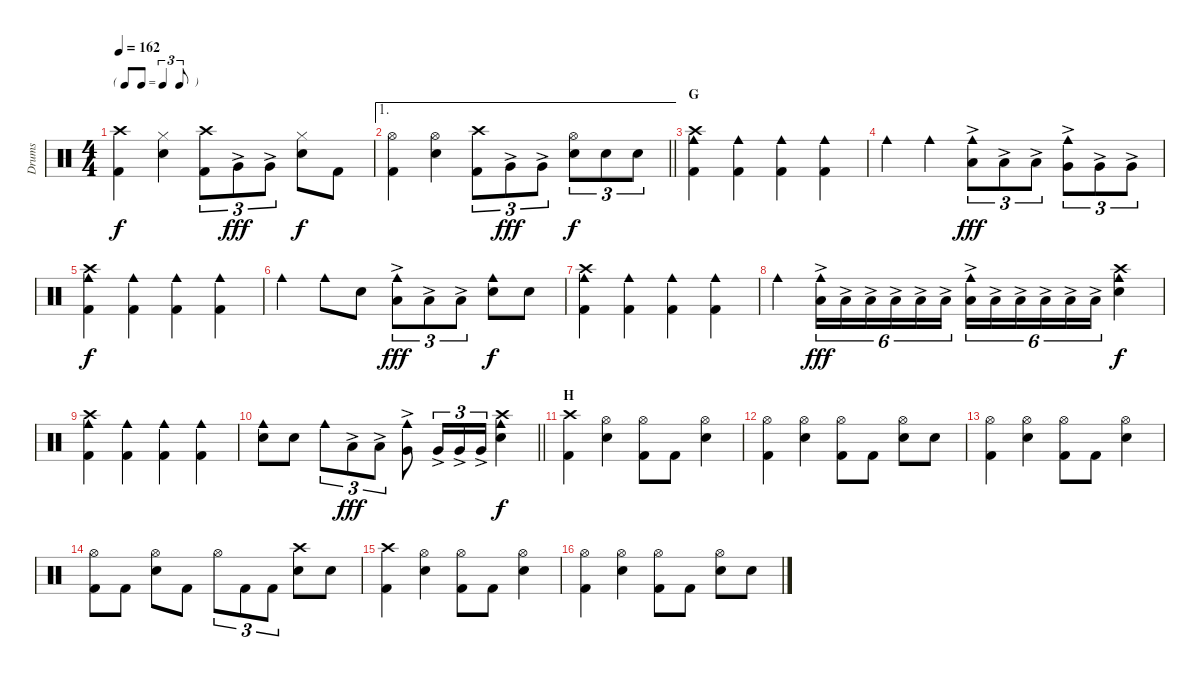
\track ("Drums" "Drums") {instrument percussion}
\staff {score}
\articulation defaults
\ts (4 4)
\tf triplet8th
\tempo 162
\clef neutral
\ks c
("Crash high (hit)" "Kick (hit) 2").4{dy f} ("Hi-Hat (closed)" "Snare (hit) 2").4 ("Crash high (hit)" "Kick (hit) 2").8{tu (3 2)} "Very Low Tom (hit)"{ac}.8{tu (3 2) dy fff} "Very Low Tom (hit)"{ac}.8{tu (3 2)} ("Hi-Hat (closed)" "Snare (hit) 2").8{dy f} "Kick (hit) 2".8 |
\ae 1
\barLineRight lightlight
("Hi-Hat (open)" "Kick (hit) 2").4 ("Hi-Hat (open)" "Snare (hit) 2").4 ("Crash high (hit)" "Kick (hit) 2").8{tu (3 2)} "Very Low Tom (hit)"{ac}.8{tu (3 2) dy fff} "Very Low Tom (hit)"{ac}.8{tu (3 2)} ("Hi-Hat (open)" "Snare (hit) 2").8{tu (3 2) dy f} "Snare (hit) 2".8{tu (3 2)} "Snare (hit) 2".8{tu (3 2)} |
\section ("" "G")
("Crash high (hit)" "Cowbell medium (hit)" "Kick (hit) 2").4 ("Cowbell medium (hit)" "Kick (hit) 2").4 ("Cowbell medium (hit)" "Kick (hit) 2").4 ("Cowbell medium (hit)" "Kick (hit) 2").4 |
"Cowbell medium (hit)".4 "Cowbell medium (hit)".4 ("Cowbell medium (hit)" "Low Tom (hit)"{ac}).8{tu (3 2) dy fff} "Low Tom (hit)"{ac}.8{tu (3 2)} "Low Tom (hit)"{ac}.8{tu (3 2)} ("Cowbell medium (hit)" "Very Low Tom (hit)"{ac}).8{tu (3 2)} "Very Low Tom (hit)"{ac}.8{tu (3 2)} "Very Low Tom (hit)"{ac}.8{tu (3 2)} |
("Crash high (hit)" "Cowbell medium (hit)" "Kick (hit) 2").4{dy f} ("Cowbell medium (hit)" "Kick (hit) 2").4 ("Cowbell medium (hit)" "Kick (hit) 2").4 ("Cowbell medium (hit)" "Kick (hit) 2").4 |
"Cowbell medium (hit)".4 "Cowbell medium (hit)".8 "Snare (hit) 2".8 ("Cowbell medium (hit)" "Low Tom (hit)"{ac}).8{tu (3 2) dy fff} "Low Tom (hit)"{ac}.8{tu (3 2)} "Low Tom (hit)"{ac}.8{tu (3 2)} ("Cowbell medium (hit)" "Snare (hit) 2").8{dy f} "Snare (hit) 2".8 |
("Crash high (hit)" "Cowbell medium (hit)" "Kick (hit) 2").4 ("Cowbell medium (hit)" "Kick (hit) 2").4 ("Cowbell medium (hit)" "Kick (hit) 2").4 ("Cowbell medium (hit)" "Kick (hit) 2").4 |
"Cowbell medium (hit)".4 ("Cowbell medium (hit)" "Low Tom (hit)"{ac}).16{tu (6 4) dy fff} "Low Tom (hit)"{ac}.16{tu (6 4)} "Low Tom (hit)"{ac}.16{tu (6 4)} "Low Tom (hit)"{ac}.16{tu (6 4)} "Low Tom (hit)"{ac}.16{tu (6 4)} "Low Tom (hit)"{ac}.16{tu (6 4)} ("Cowbell medium (hit)" "Low Tom (hit)"{ac}).16{tu (6 4)} "Low Tom (hit)"{ac}.16{tu (6 4)} "Low Tom (hit)"{ac}.16{tu (6 4)} "Low Tom (hit)"{ac}.16{tu (6 4)} "Low Tom (hit)"{ac}.16{tu (6 4)} "Low Tom (hit)"{ac}.16{tu (6 4)} ("Crash high (hit)" "Cowbell medium (hit)" "Snare (hit) 2").4{dy f} |
("Crash high (hit)" "Cowbell medium (hit)" "Kick (hit) 2").4 ("Cowbell medium (hit)" "Kick (hit) 2").4 ("Cowbell medium (hit)" "Kick (hit) 2").4 ("Cowbell medium (hit)" "Kick (hit) 2").4 |
\barLineRight lightlight
("Cowbell medium (hit)" "Snare (hit) 2").8 "Snare (hit) 2".8 "Cowbell medium (hit)".8{tu (3 2)} "Low Tom (hit)"{ac}.8{tu (3 2) dy fff} "Low Tom (hit)"{ac}.8{tu (3 2)} ("Cowbell medium (hit)" "Very Low Tom (hit)"{ac}).8 "Very Low Tom (hit)"{ac}.16{tu (3 2)} "Very Low Tom (hit)"{ac}.16{tu (3 2)} "Very Low Tom (hit)"{ac}.16{tu (3 2)} ("Crash high (hit)" "Cowbell medium (hit)" "Snare (hit) 2").4{dy f} |
\section ("" "H")
("Crash high (hit)" "Kick (hit) 2").4 ("Hi-Hat (open)" "Snare (hit) 2").4 ("Hi-Hat (open)" "Kick (hit) 2").8 "Kick (hit) 2".8 ("Hi-Hat (open)" "Snare (hit) 2").4 |
("Hi-Hat (open)" "Kick (hit) 2").4 ("Hi-Hat (open)" "Snare (hit) 2").4 ("Hi-Hat (open)" "Kick (hit) 2").8 "Kick (hit) 2".8 ("Hi-Hat (open)" "Snare (hit) 2").8 "Snare (hit) 2".8 |
("Hi-Hat (open)" "Kick (hit) 2").4 ("Hi-Hat (open)" "Snare (hit) 2").4 ("Hi-Hat (open)" "Kick (hit) 2").8 "Kick (hit) 2".8 ("Hi-Hat (open)" "Snare (hit) 2").4 |
("Hi-Hat (open)" "Kick (hit) 2").8 "Kick (hit) 2".8 ("Hi-Hat (open)" "Snare (hit) 2").8 "Kick (hit) 2".8 "Hi-Hat (open)".8{tu (3 2)} "Kick (hit) 2".8{tu (3 2)} "Kick (hit) 2".8{tu (3 2)} ("Crash high (hit)" "Snare (hit) 2").8 "Snare (hit) 2".8 |
("Crash high (hit)" "Kick (hit) 2").4 ("Hi-Hat (open)" "Snare (hit) 2").4 ("Hi-Hat (open)" "Kick (hit) 2").8 "Kick (hit) 2".8 ("Hi-Hat (open)" "Snare (hit) 2").4 |
("Hi-Hat (open)" "Kick (hit) 2").4 ("Hi-Hat (open)" "Snare (hit) 2").4 ("Hi-Hat (open)" "Kick (hit) 2").8 "Kick (hit) 2".8 ("Hi-Hat (open)" "Snare (hit) 2").8 "Snare (hit) 2".8
